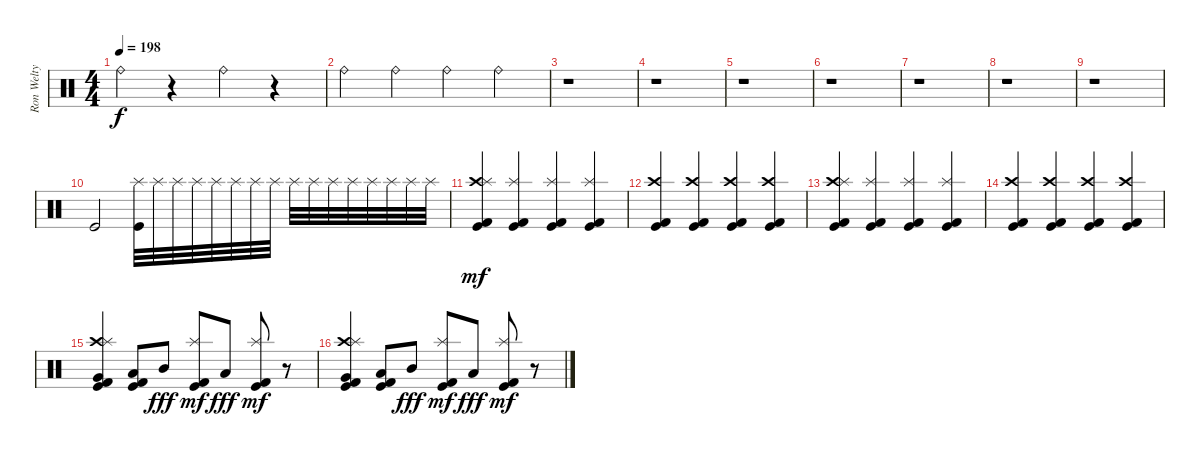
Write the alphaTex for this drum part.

\track ("Ron Welty" "Ron Welty") {instrument percussion}
\staff {score}
\articulation defaults
\ts (4 4)
\tempo 198
\clef neutral
\ks c "Ride (bell)".4{dy f}
r.4 "Ride (bell)".4 r.4 |
"Ride (bell)".4 "Ride (bell)".4 "Ride (bell)".4 "Ride (bell)".4 |
r.1 |
r.1 |
r.1 |
r.1 |
r.1 |
r.1 |
r.1 |
"Kick (hit)".2 ("Splash (hit)" "Kick (hit)").32 "Splash (hit)".32 "Splash (hit)".32 "Splash (hit)".32 "Splash (hit)".32 "Splash (hit)".32 "Splash (hit)".32 "Splash (hit)".32 "Splash (hit)".32 "Splash (hit)".32 "Splash (hit)".32 "Splash (hit)".32 "Splash (hit)".32 "Splash (hit)".32 "Splash (hit)".32 "Splash (hit)".32 |
("Crash high (hit)" "Splash (hit)" "Kick (hit) 2" "Kick (hit)").4{dy mf} ("Splash (hit)" "Kick (hit) 2" "Kick (hit)").4 ("Splash (hit)" "Kick (hit) 2" "Kick (hit)").4 ("Splash (hit)" "Kick (hit) 2" "Kick (hit)").4 |
("Crash high (hit)" "Kick (hit) 2" "Kick (hit)").4 ("Crash high (hit)" "Kick (hit) 2" "Kick (hit)").4 ("Crash high (hit)" "Kick (hit) 2" "Kick (hit)").4 ("Crash high (hit)" "Kick (hit) 2" "Kick (hit)").4 |
("Crash high (hit)" "Splash (hit)" "Kick (hit) 2" "Kick (hit)").4 ("Splash (hit)" "Kick (hit) 2" "Kick (hit)").4 ("Splash (hit)" "Kick (hit) 2" "Kick (hit)").4 ("Splash (hit)" "Kick (hit) 2" "Kick (hit)").4 |
("Crash high (hit)" "Kick (hit) 2" "Kick (hit)").4 ("Crash high (hit)" "Kick (hit) 2" "Kick (hit)").4 ("Crash high (hit)" "Kick (hit) 2" "Kick (hit)").4 ("Crash high (hit)" "Kick (hit) 2" "Kick (hit)").4 |
("Crash high (hit)" "Splash (hit)" "Very Low Tom (hit)" "Kick (hit) 2" "Kick (hit)").4 ("Low Tom (hit)" "Kick (hit) 2" "Kick (hit)").8 "Mid Tom (hit)".8{dy fff} ("Splash (hit)" "Kick (hit) 2" "Kick (hit)").8{dy mf} "Low Floor Tom (hit)".8{dy fff} ("Splash (hit)" "Kick (hit) 2" "Kick (hit)").8{dy mf} r.8 |
("Crash high (hit)" "Splash (hit)" "Very Low Tom (hit)" "Kick (hit) 2" "Kick (hit)").4 ("Low Tom (hit)" "Kick (hit) 2" "Kick (hit)").8 "Mid Tom (hit)".8{dy fff} ("Splash (hit)" "Kick (hit) 2" "Kick (hit)").8{dy mf} "Low Floor Tom (hit)".8{dy fff} ("Splash (hit)" "Kick (hit) 2" "Kick (hit)").8{dy mf} r.8
